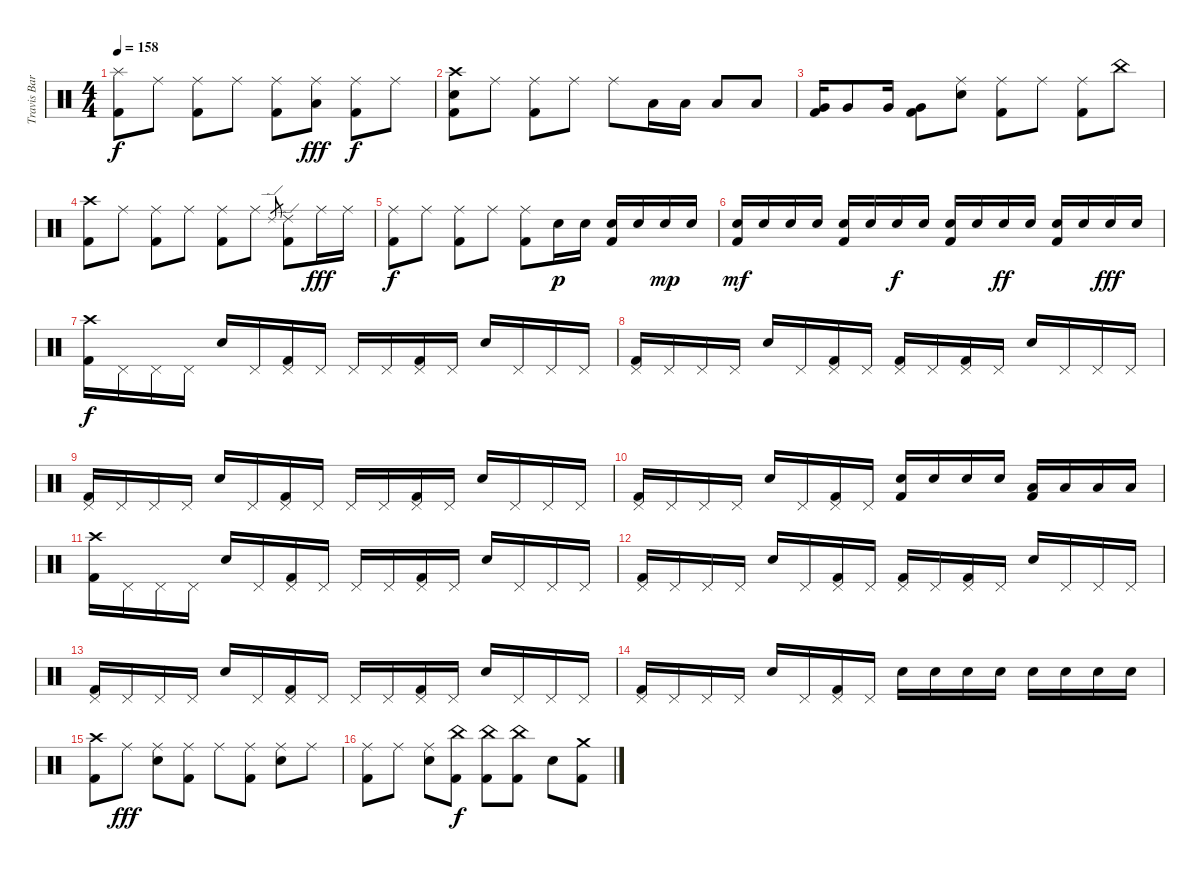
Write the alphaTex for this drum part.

\track ("Travis Barker - Drums" "Travis Bar") {instrument percussion}
\staff {score}
\articulation defaults
\ts (4 4)
\tempo 158
\clef neutral
\ks c
("Splash (hit)" "Kick (hit) 2").8{dy f} "Ride (middle)".8 ("Ride (middle)" "Kick (hit) 2").8 "Ride (middle)".8 ("Ride (middle)" "Kick (hit) 2").8 ("Ride (middle)" "Low Tom (hit)").8{dy fff} ("Ride (middle)" "Kick (hit) 2").8{dy f} "Ride (middle)".8 |
("Crash high (hit)" "Electric Snare (hit)" "Kick (hit) 2").8 "Ride (middle)".8 ("Ride (middle)" "Kick (hit) 2").8 "Ride (middle)".8 "Ride (middle)".8 "Low Tom (hit)".16 "Low Tom (hit)".16 "Low Tom (hit)".8 "Low Tom (hit)".8 |
("Very Low Tom (hit)" "Kick (hit) 2").16 "Very Low Tom (hit)".8 "Very Low Tom (hit)".16 ("Very Low Tom (hit)" "Kick (hit) 2").8 ("Ride (middle)" "Electric Snare (hit)").8 ("Ride (middle)" "Kick (hit) 2").8 "Ride (middle)".8 ("Ride (middle)" "Kick (hit) 2").8 "China (hit)".8 |
("Crash high (hit)" "Kick (hit) 2").8 "Ride (middle)".8 ("Ride (middle)" "Kick (hit) 2").8 "Ride (middle)".8 ("Ride (middle)" "Kick (hit) 2").8 "Ride (middle)".8 "Ride (edge) 2".8{gr} ("Ride (edge) 2" "Kick (hit) 2").8 "Ride (middle)".16{dy fff} "Ride (middle)".16 |
("Ride (middle)" "Kick (hit) 2").8{dy f} "Ride (middle)".8 ("Ride (middle)" "Kick (hit) 2").8 "Ride (middle)".8 ("Ride (middle)" "Kick (hit) 2").8 "Electric Snare (hit)".16{dy p} "Electric Snare (hit)".16 ("Electric Snare (hit)" "Kick (hit) 2").16 "Electric Snare (hit)".16 "Electric Snare (hit)".16{dy mp} "Electric Snare (hit)".16 |
("Electric Snare (hit)" "Kick (hit) 2").16{dy mf} "Electric Snare (hit)".16 "Electric Snare (hit)".16 "Electric Snare (hit)".16 ("Electric Snare (hit)" "Kick (hit) 2").16 "Electric Snare (hit)".16 "Electric Snare (hit)".16{dy f} "Electric Snare (hit)".16 ("Electric Snare (hit)" "Kick (hit) 2").16 "Electric Snare (hit)".16 "Electric Snare (hit)".16{dy ff} "Electric Snare (hit)".16 ("Electric Snare (hit)" "Kick (hit) 2").16 "Electric Snare (hit)".16 "Electric Snare (hit)".16{dy fff} "Electric Snare (hit)".16 |
("Crash high (hit)" "Kick (hit) 2").16{dy f} "Pedal Hi-Hat (hit)".16 "Pedal Hi-Hat (hit)".16 "Pedal Hi-Hat (hit)".16 "Electric Snare (hit)".16 "Pedal Hi-Hat (hit)".16 ("Pedal Hi-Hat (hit)" "Kick (hit) 2").16 "Pedal Hi-Hat (hit)".16 "Pedal Hi-Hat (hit)".16 "Pedal Hi-Hat (hit)".16 ("Pedal Hi-Hat (hit)" "Kick (hit) 2").16 "Pedal Hi-Hat (hit)".16 "Electric Snare (hit)".16 "Pedal Hi-Hat (hit)".16 "Pedal Hi-Hat (hit)".16 "Pedal Hi-Hat (hit)".16 |
("Pedal Hi-Hat (hit)" "Kick (hit) 2").16 "Pedal Hi-Hat (hit)".16 "Pedal Hi-Hat (hit)".16 "Pedal Hi-Hat (hit)".16 "Electric Snare (hit)".16 "Pedal Hi-Hat (hit)".16 ("Pedal Hi-Hat (hit)" "Kick (hit) 2").16 "Pedal Hi-Hat (hit)".16 ("Pedal Hi-Hat (hit)" "Kick (hit) 2").16 "Pedal Hi-Hat (hit)".16 ("Pedal Hi-Hat (hit)" "Kick (hit) 2").16 "Pedal Hi-Hat (hit)".16 "Electric Snare (hit)".16 "Pedal Hi-Hat (hit)".16 "Pedal Hi-Hat (hit)".16 "Pedal Hi-Hat (hit)".16 |
("Pedal Hi-Hat (hit)" "Kick (hit) 2").16 "Pedal Hi-Hat (hit)".16 "Pedal Hi-Hat (hit)".16 "Pedal Hi-Hat (hit)".16 "Electric Snare (hit)".16 "Pedal Hi-Hat (hit)".16 ("Pedal Hi-Hat (hit)" "Kick (hit) 2").16 "Pedal Hi-Hat (hit)".16 "Pedal Hi-Hat (hit)".16 "Pedal Hi-Hat (hit)".16 ("Pedal Hi-Hat (hit)" "Kick (hit) 2").16 "Pedal Hi-Hat (hit)".16 "Electric Snare (hit)".16 "Pedal Hi-Hat (hit)".16 "Pedal Hi-Hat (hit)".16 "Pedal Hi-Hat (hit)".16 |
("Pedal Hi-Hat (hit)" "Kick (hit) 2").16 "Pedal Hi-Hat (hit)".16 "Pedal Hi-Hat (hit)".16 "Pedal Hi-Hat (hit)".16 "Electric Snare (hit)".16 "Pedal Hi-Hat (hit)".16 ("Pedal Hi-Hat (hit)" "Kick (hit) 2").16 "Pedal Hi-Hat (hit)".16 ("Electric Snare (hit)" "Kick (hit) 2").16 "Electric Snare (hit)".16 "Electric Snare (hit)".16 "Electric Snare (hit)".16 ("Low Tom (hit)" "Kick (hit) 2").16 "Low Tom (hit)".16 "Low Tom (hit)".16 "Low Tom (hit)".16 |
("Crash high (hit)" "Kick (hit) 2").16 "Pedal Hi-Hat (hit)".16 "Pedal Hi-Hat (hit)".16 "Pedal Hi-Hat (hit)".16 "Electric Snare (hit)".16 "Pedal Hi-Hat (hit)".16 ("Pedal Hi-Hat (hit)" "Kick (hit) 2").16 "Pedal Hi-Hat (hit)".16 "Pedal Hi-Hat (hit)".16 "Pedal Hi-Hat (hit)".16 ("Pedal Hi-Hat (hit)" "Kick (hit) 2").16 "Pedal Hi-Hat (hit)".16 "Electric Snare (hit)".16 "Pedal Hi-Hat (hit)".16 "Pedal Hi-Hat (hit)".16 "Pedal Hi-Hat (hit)".16 |
("Pedal Hi-Hat (hit)" "Kick (hit) 2").16 "Pedal Hi-Hat (hit)".16 "Pedal Hi-Hat (hit)".16 "Pedal Hi-Hat (hit)".16 "Electric Snare (hit)".16 "Pedal Hi-Hat (hit)".16 ("Pedal Hi-Hat (hit)" "Kick (hit) 2").16 "Pedal Hi-Hat (hit)".16 ("Pedal Hi-Hat (hit)" "Kick (hit) 2").16 "Pedal Hi-Hat (hit)".16 ("Pedal Hi-Hat (hit)" "Kick (hit) 2").16 "Pedal Hi-Hat (hit)".16 "Electric Snare (hit)".16 "Pedal Hi-Hat (hit)".16 "Pedal Hi-Hat (hit)".16 "Pedal Hi-Hat (hit)".16 |
("Pedal Hi-Hat (hit)" "Kick (hit) 2").16 "Pedal Hi-Hat (hit)".16 "Pedal Hi-Hat (hit)".16 "Pedal Hi-Hat (hit)".16 "Electric Snare (hit)".16 "Pedal Hi-Hat (hit)".16 ("Pedal Hi-Hat (hit)" "Kick (hit) 2").16 "Pedal Hi-Hat (hit)".16 "Pedal Hi-Hat (hit)".16 "Pedal Hi-Hat (hit)".16 ("Pedal Hi-Hat (hit)" "Kick (hit) 2").16 "Pedal Hi-Hat (hit)".16 "Electric Snare (hit)".16 "Pedal Hi-Hat (hit)".16 "Pedal Hi-Hat (hit)".16 "Pedal Hi-Hat (hit)".16 |
("Pedal Hi-Hat (hit)" "Kick (hit) 2").16 "Pedal Hi-Hat (hit)".16 "Pedal Hi-Hat (hit)".16 "Pedal Hi-Hat (hit)".16 "Electric Snare (hit)".16 "Pedal Hi-Hat (hit)".16 ("Pedal Hi-Hat (hit)" "Kick (hit) 2").16 "Pedal Hi-Hat (hit)".16 "Electric Snare (hit)".16 "Electric Snare (hit)".16 "Electric Snare (hit)".16 "Electric Snare (hit)".16 "Electric Snare (hit)".16 "Electric Snare (hit)".16 "Electric Snare (hit)".16 "Electric Snare (hit)".16 |
("Crash high (hit)" "Kick (hit) 2").8 "Ride (middle)".8{dy fff} ("Ride (middle)" "Electric Snare (hit)").8 ("Ride (middle)" "Kick (hit) 2").8 "Ride (middle)".8 ("Ride (middle)" "Kick (hit) 2").8 ("Ride (middle)" "Electric Snare (hit)").8 "Ride (middle)".8 |
("Ride (middle)" "Kick (hit) 2").8 "Ride (middle)".8 ("Ride (middle)" "Electric Snare (hit)").8 ("China (hit)" "Kick (hit) 2").8{dy f} ("China (hit)" "Kick (hit) 2").8 ("China (hit)" "Kick (hit) 2").8 "Electric Snare (hit)".8 ("Crash medium (hit)" "Kick (hit) 2").8
